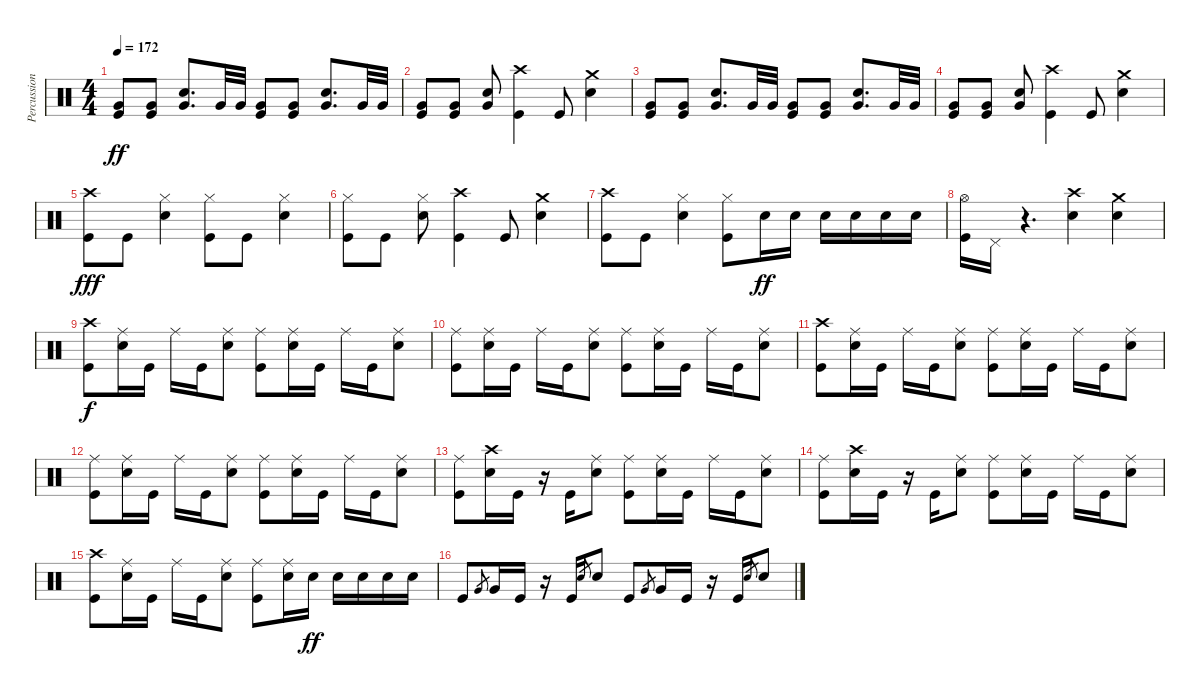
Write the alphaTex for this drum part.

\track ("Percussion" "Percussion") {instrument percussion}
\staff {score}
\articulation defaults
\ts (4 4)
\tempo 172
\clef neutral
\ks c
("Kick (hit)" "Very Low Tom (hit)").8{dy ff} ("Kick (hit)" "Very Low Tom (hit)").8 ("Snare (hit) 2" "Very Low Tom (hit)").8{d} "Very Low Tom (hit)".32 "Very Low Tom (hit)".32 ("Kick (hit)" "Very Low Tom (hit)").8 ("Kick (hit)" "Very Low Tom (hit)").8 ("Snare (hit) 2" "Very Low Tom (hit)").8{d} "Very Low Tom (hit)".32 "Very Low Tom (hit)".32 |
("Kick (hit)" "Very Low Tom (hit)").8 ("Kick (hit)" "Very Low Tom (hit)").8 ("Snare (hit) 2" "Very Low Tom (hit)").8 ("Crash high (hit)" "Kick (hit)").4 "Kick (hit)".8 ("Crash medium (hit)" "Snare (hit) 2").4 |
("Kick (hit)" "Very Low Tom (hit)").8 ("Kick (hit)" "Very Low Tom (hit)").8 ("Snare (hit) 2" "Very Low Tom (hit)").8{d} "Very Low Tom (hit)".32 "Very Low Tom (hit)".32 ("Kick (hit)" "Very Low Tom (hit)").8 ("Kick (hit)" "Very Low Tom (hit)").8 ("Snare (hit) 2" "Very Low Tom (hit)").8{d} "Very Low Tom (hit)".32 "Very Low Tom (hit)".32 |
("Kick (hit)" "Very Low Tom (hit)").8 ("Kick (hit)" "Very Low Tom (hit)").8 ("Snare (hit) 2" "Very Low Tom (hit)").8 ("Crash high (hit)" "Kick (hit)").4 "Kick (hit)".8 ("Crash medium (hit)" "Snare (hit) 2").4 |
("Crash high (hit)" "Kick (hit)").8{dy fff} "Kick (hit)".8 ("Hi-Hat (closed)" "Snare (hit) 2").4 ("Hi-Hat (closed)" "Kick (hit)").8 "Kick (hit)".8 ("Hi-Hat (closed)" "Snare (hit) 2").4 |
("Hi-Hat (closed)" "Kick (hit)").8 "Kick (hit)".8 ("Hi-Hat (closed)" "Snare (hit) 2").8 ("Crash high (hit)" "Kick (hit)").4 "Kick (hit)".8 ("Crash medium (hit)" "Snare (hit) 2").4 |
("Crash high (hit)" "Kick (hit)").8 "Kick (hit)".8 ("Hi-Hat (closed)" "Snare (hit) 2").4 ("Hi-Hat (closed)" "Kick (hit)").8 "Snare (hit) 2".16{dy ff} "Snare (hit) 2".16 "Snare (hit) 2".16 "Snare (hit) 2".16 "Snare (hit) 2".16 "Snare (hit) 2".16 |
("Hi-Hat (open)" "Kick (hit)").16 "Pedal Hi-Hat (hit)".16 r.4{d} ("Crash high (hit)" "Snare (hit) 2").4 ("Crash medium (hit)" "Snare (hit) 2").4 |
("Crash high (hit)" "Kick (hit)").8{dy f} ("Ride (middle)" "Snare (hit) 2").16 "Kick (hit)".16 "Ride (middle)".16 "Kick (hit)".16 ("Ride (middle)" "Snare (hit) 2").8 ("Ride (middle)" "Kick (hit)").8 ("Ride (middle)" "Snare (hit) 2").16 "Kick (hit)".16 "Ride (middle)".16 "Kick (hit)".16 ("Ride (middle)" "Snare (hit) 2").8 |
("Ride (middle)" "Kick (hit)").8 ("Ride (middle)" "Snare (hit) 2").16 "Kick (hit)".16 "Ride (middle)".16 "Kick (hit)".16 ("Ride (middle)" "Snare (hit) 2").8 ("Ride (middle)" "Kick (hit)").8 ("Ride (middle)" "Snare (hit) 2").16 "Kick (hit)".16 "Ride (middle)".16 "Kick (hit)".16 ("Ride (middle)" "Snare (hit) 2").8 |
("Crash high (hit)" "Kick (hit)").8 ("Ride (middle)" "Snare (hit) 2").16 "Kick (hit)".16 "Ride (middle)".16 "Kick (hit)".16 ("Ride (middle)" "Snare (hit) 2").8 ("Ride (middle)" "Kick (hit)").8 ("Ride (middle)" "Snare (hit) 2").16 "Kick (hit)".16 "Ride (middle)".16 "Kick (hit)".16 ("Ride (middle)" "Snare (hit) 2").8 |
("Ride (middle)" "Kick (hit)").8 ("Ride (middle)" "Snare (hit) 2").16 "Kick (hit)".16 "Ride (middle)".16 "Kick (hit)".16 ("Ride (middle)" "Snare (hit) 2").8 ("Ride (middle)" "Kick (hit)").8 ("Ride (middle)" "Snare (hit) 2").16 "Kick (hit)".16 "Ride (middle)".16 "Kick (hit)".16 ("Ride (middle)" "Snare (hit) 2").8 |
("Ride (middle)" "Kick (hit)").8 ("Crash high (hit)" "Snare (hit) 2").16 "Kick (hit)".16 r.16 "Kick (hit)".16 ("Ride (middle)" "Snare (hit) 2").8 ("Ride (middle)" "Kick (hit)").8 ("Ride (middle)" "Snare (hit) 2").16 "Kick (hit)".16 "Ride (middle)".16 "Kick (hit)".16 ("Ride (middle)" "Snare (hit) 2").8 |
("Ride (middle)" "Kick (hit)").8 ("Crash high (hit)" "Snare (hit) 2").16 "Kick (hit)".16 r.16 "Kick (hit)".16 ("Ride (middle)" "Snare (hit) 2").8 ("Ride (middle)" "Kick (hit)").8 ("Ride (middle)" "Snare (hit) 2").16 "Kick (hit)".16 "Ride (middle)".16 "Kick (hit)".16 ("Ride (middle)" "Snare (hit) 2").8 |
("Crash high (hit)" "Kick (hit)").8 ("Ride (middle)" "Snare (hit) 2").16 "Kick (hit)".16 "Ride (middle)".16 "Kick (hit)".16 ("Ride (middle)" "Snare (hit) 2").8 ("Ride (middle)" "Kick (hit)").8 ("Ride (middle)" "Snare (hit) 2").16 "Snare (hit) 2".16{dy ff} "Snare (hit) 2".16 "Snare (hit) 2".16 "Snare (hit) 2".16 "Snare (hit) 2".16 |
"Kick (hit)".8 "Very Low Tom (hit)".8{gr} "Very Low Tom (hit)".16 "Kick (hit)".16 r.16 "Kick (hit)".16 "Snare (hit) 2".8{gr} "Snare (hit) 2".8 "Kick (hit)".8 "Very Low Tom (hit)".8{gr} "Very Low Tom (hit)".16 "Kick (hit)".16 r.16 "Kick (hit)".16 "Snare (hit) 2".8{gr} "Snare (hit) 2".8
